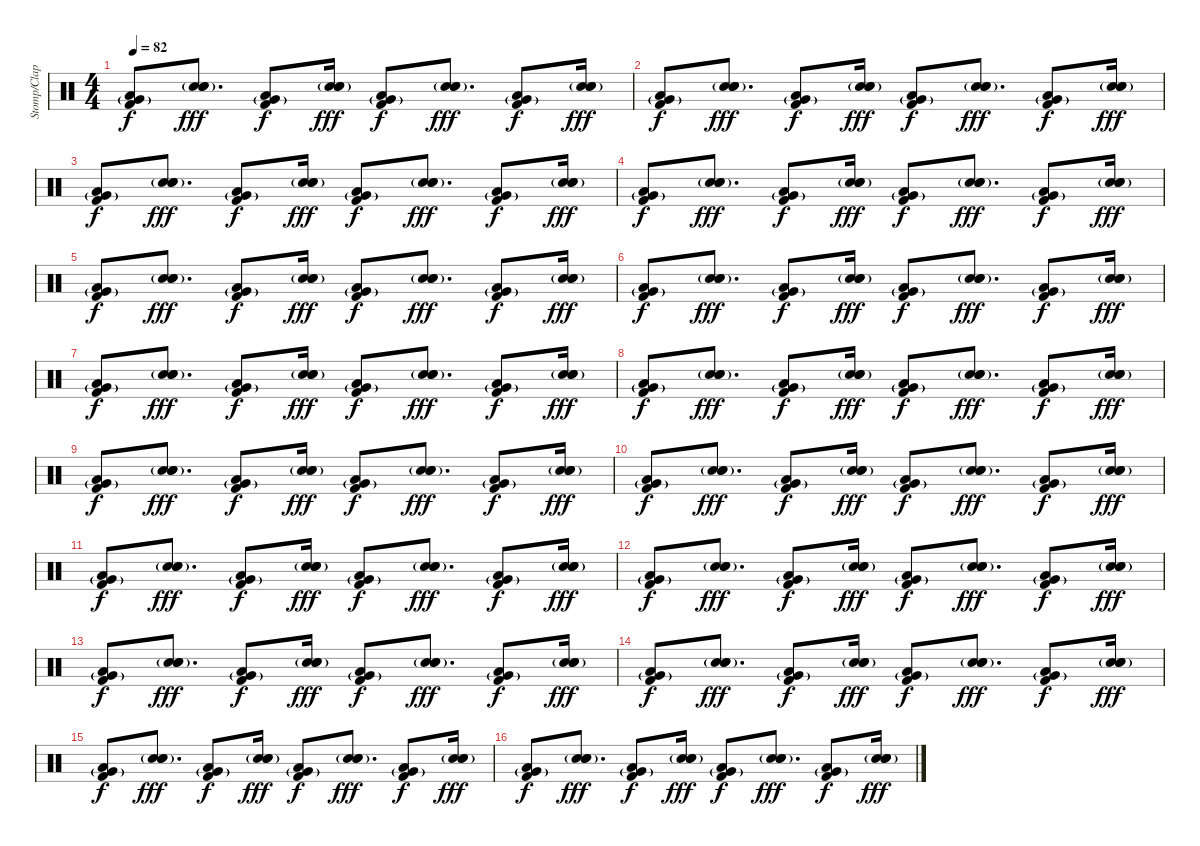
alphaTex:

\track ("Stomp/Clap" "Stomp/Clap") {instrument percussion}
\staff {score}
\articulation defaults
\ts (4 4)
\tempo 82
\clef neutral
\ks c
("Kick (hit) 2" "Low Floor Tom (hit)" "Very Low Tom (hit)"{g}).8{dy f} ("Hand Clap (hit)" "Snare (hit) 2"{g} "Hand Clap (hit)").8{d dy fff} ("Kick (hit) 2" "Low Floor Tom (hit)" "Very Low Tom (hit)"{g}).8{dy f} ("Hand Clap (hit)" "Snare (hit) 2"{g} "Hand Clap (hit)").16{dy fff} ("Kick (hit) 2" "Low Floor Tom (hit)" "Very Low Tom (hit)"{g}).8{dy f} ("Hand Clap (hit)" "Snare (hit) 2"{g} "Hand Clap (hit)").8{d dy fff} ("Kick (hit) 2" "Low Floor Tom (hit)" "Very Low Tom (hit)"{g}).8{dy f} ("Hand Clap (hit)" "Snare (hit) 2"{g} "Hand Clap (hit)").16{dy fff} |
("Kick (hit) 2" "Low Floor Tom (hit)" "Very Low Tom (hit)"{g}).8{dy f} ("Hand Clap (hit)" "Snare (hit) 2"{g} "Hand Clap (hit)").8{d dy fff} ("Kick (hit) 2" "Low Floor Tom (hit)" "Very Low Tom (hit)"{g}).8{dy f} ("Hand Clap (hit)" "Snare (hit) 2"{g} "Hand Clap (hit)").16{dy fff} ("Kick (hit) 2" "Low Floor Tom (hit)" "Very Low Tom (hit)"{g}).8{dy f} ("Hand Clap (hit)" "Snare (hit) 2"{g} "Hand Clap (hit)").8{d dy fff} ("Kick (hit) 2" "Low Floor Tom (hit)" "Very Low Tom (hit)"{g}).8{dy f} ("Hand Clap (hit)" "Snare (hit) 2"{g} "Hand Clap (hit)").16{dy fff} |
("Kick (hit) 2" "Low Floor Tom (hit)" "Very Low Tom (hit)"{g}).8{dy f} ("Hand Clap (hit)" "Snare (hit) 2"{g} "Hand Clap (hit)").8{d dy fff} ("Kick (hit) 2" "Low Floor Tom (hit)" "Very Low Tom (hit)"{g}).8{dy f} ("Hand Clap (hit)" "Snare (hit) 2"{g} "Hand Clap (hit)").16{dy fff} ("Kick (hit) 2" "Low Floor Tom (hit)" "Very Low Tom (hit)"{g}).8{dy f} ("Hand Clap (hit)" "Snare (hit) 2"{g} "Hand Clap (hit)").8{d dy fff} ("Kick (hit) 2" "Low Floor Tom (hit)" "Very Low Tom (hit)"{g}).8{dy f} ("Hand Clap (hit)" "Snare (hit) 2"{g} "Hand Clap (hit)").16{dy fff} |
("Kick (hit) 2" "Low Floor Tom (hit)" "Very Low Tom (hit)"{g}).8{dy f} ("Hand Clap (hit)" "Snare (hit) 2"{g} "Hand Clap (hit)").8{d dy fff} ("Kick (hit) 2" "Low Floor Tom (hit)" "Very Low Tom (hit)"{g}).8{dy f} ("Hand Clap (hit)" "Snare (hit) 2"{g} "Hand Clap (hit)").16{dy fff} ("Kick (hit) 2" "Low Floor Tom (hit)" "Very Low Tom (hit)"{g}).8{dy f} ("Hand Clap (hit)" "Snare (hit) 2"{g} "Hand Clap (hit)").8{d dy fff} ("Kick (hit) 2" "Low Floor Tom (hit)" "Very Low Tom (hit)"{g}).8{dy f} ("Hand Clap (hit)" "Snare (hit) 2"{g} "Hand Clap (hit)").16{dy fff} |
("Kick (hit) 2" "Low Floor Tom (hit)" "Very Low Tom (hit)"{g}).8{dy f} ("Hand Clap (hit)" "Snare (hit) 2"{g} "Hand Clap (hit)").8{d dy fff} ("Kick (hit) 2" "Low Floor Tom (hit)" "Very Low Tom (hit)"{g}).8{dy f} ("Hand Clap (hit)" "Snare (hit) 2"{g} "Hand Clap (hit)").16{dy fff} ("Kick (hit) 2" "Low Floor Tom (hit)" "Very Low Tom (hit)"{g}).8{dy f} ("Hand Clap (hit)" "Snare (hit) 2"{g} "Hand Clap (hit)").8{d dy fff} ("Kick (hit) 2" "Low Floor Tom (hit)" "Very Low Tom (hit)"{g}).8{dy f} ("Hand Clap (hit)" "Snare (hit) 2"{g} "Hand Clap (hit)").16{dy fff} |
("Kick (hit) 2" "Low Floor Tom (hit)" "Very Low Tom (hit)"{g}).8{dy f} ("Hand Clap (hit)" "Snare (hit) 2"{g} "Hand Clap (hit)").8{d dy fff} ("Kick (hit) 2" "Low Floor Tom (hit)" "Very Low Tom (hit)"{g}).8{dy f} ("Hand Clap (hit)" "Snare (hit) 2"{g} "Hand Clap (hit)").16{dy fff} ("Kick (hit) 2" "Low Floor Tom (hit)" "Very Low Tom (hit)"{g}).8{dy f} ("Hand Clap (hit)" "Snare (hit) 2"{g} "Hand Clap (hit)").8{d dy fff} ("Kick (hit) 2" "Low Floor Tom (hit)" "Very Low Tom (hit)"{g}).8{dy f} ("Hand Clap (hit)" "Snare (hit) 2"{g} "Hand Clap (hit)").16{dy fff} |
("Kick (hit) 2" "Low Floor Tom (hit)" "Very Low Tom (hit)"{g}).8{dy f} ("Hand Clap (hit)" "Snare (hit) 2"{g} "Hand Clap (hit)").8{d dy fff} ("Kick (hit) 2" "Low Floor Tom (hit)" "Very Low Tom (hit)"{g}).8{dy f} ("Hand Clap (hit)" "Snare (hit) 2"{g} "Hand Clap (hit)").16{dy fff} ("Kick (hit) 2" "Low Floor Tom (hit)" "Very Low Tom (hit)"{g}).8{dy f} ("Hand Clap (hit)" "Snare (hit) 2"{g} "Hand Clap (hit)").8{d dy fff} ("Kick (hit) 2" "Low Floor Tom (hit)" "Very Low Tom (hit)"{g}).8{dy f} ("Hand Clap (hit)" "Snare (hit) 2"{g} "Hand Clap (hit)").16{dy fff} |
("Kick (hit) 2" "Low Floor Tom (hit)" "Very Low Tom (hit)"{g}).8{dy f} ("Hand Clap (hit)" "Snare (hit) 2"{g} "Hand Clap (hit)").8{d dy fff} ("Kick (hit) 2" "Low Floor Tom (hit)" "Very Low Tom (hit)"{g}).8{dy f} ("Hand Clap (hit)" "Snare (hit) 2"{g} "Hand Clap (hit)").16{dy fff} ("Kick (hit) 2" "Low Floor Tom (hit)" "Very Low Tom (hit)"{g}).8{dy f} ("Hand Clap (hit)" "Snare (hit) 2"{g} "Hand Clap (hit)").8{d dy fff} ("Kick (hit) 2" "Low Floor Tom (hit)" "Very Low Tom (hit)"{g}).8{dy f} ("Hand Clap (hit)" "Snare (hit) 2"{g} "Hand Clap (hit)").16{dy fff} |
("Kick (hit) 2" "Low Floor Tom (hit)" "Very Low Tom (hit)"{g}).8{dy f} ("Hand Clap (hit)" "Snare (hit) 2"{g} "Hand Clap (hit)").8{d dy fff} ("Kick (hit) 2" "Low Floor Tom (hit)" "Very Low Tom (hit)"{g}).8{dy f} ("Hand Clap (hit)" "Snare (hit) 2"{g} "Hand Clap (hit)").16{dy fff} ("Kick (hit) 2" "Low Floor Tom (hit)" "Very Low Tom (hit)"{g}).8{dy f} ("Hand Clap (hit)" "Snare (hit) 2"{g} "Hand Clap (hit)").8{d dy fff} ("Kick (hit) 2" "Low Floor Tom (hit)" "Very Low Tom (hit)"{g}).8{dy f} ("Hand Clap (hit)" "Snare (hit) 2"{g} "Hand Clap (hit)").16{dy fff} |
("Kick (hit) 2" "Low Floor Tom (hit)" "Very Low Tom (hit)"{g}).8{dy f} ("Hand Clap (hit)" "Snare (hit) 2"{g} "Hand Clap (hit)").8{d dy fff} ("Kick (hit) 2" "Low Floor Tom (hit)" "Very Low Tom (hit)"{g}).8{dy f} ("Hand Clap (hit)" "Snare (hit) 2"{g} "Hand Clap (hit)").16{dy fff} ("Kick (hit) 2" "Low Floor Tom (hit)" "Very Low Tom (hit)"{g}).8{dy f} ("Hand Clap (hit)" "Snare (hit) 2"{g} "Hand Clap (hit)").8{d dy fff} ("Kick (hit) 2" "Low Floor Tom (hit)" "Very Low Tom (hit)"{g}).8{dy f} ("Hand Clap (hit)" "Snare (hit) 2"{g} "Hand Clap (hit)").16{dy fff} |
("Kick (hit) 2" "Low Floor Tom (hit)" "Very Low Tom (hit)"{g}).8{dy f} ("Hand Clap (hit)" "Snare (hit) 2"{g} "Hand Clap (hit)").8{d dy fff} ("Kick (hit) 2" "Low Floor Tom (hit)" "Very Low Tom (hit)"{g}).8{dy f} ("Hand Clap (hit)" "Snare (hit) 2"{g} "Hand Clap (hit)").16{dy fff} ("Kick (hit) 2" "Low Floor Tom (hit)" "Very Low Tom (hit)"{g}).8{dy f} ("Hand Clap (hit)" "Snare (hit) 2"{g} "Hand Clap (hit)").8{d dy fff} ("Kick (hit) 2" "Low Floor Tom (hit)" "Very Low Tom (hit)"{g}).8{dy f} ("Hand Clap (hit)" "Snare (hit) 2"{g} "Hand Clap (hit)").16{dy fff} |
("Kick (hit) 2" "Low Floor Tom (hit)" "Very Low Tom (hit)"{g}).8{dy f} ("Hand Clap (hit)" "Snare (hit) 2"{g} "Hand Clap (hit)").8{d dy fff} ("Kick (hit) 2" "Low Floor Tom (hit)" "Very Low Tom (hit)"{g}).8{dy f} ("Hand Clap (hit)" "Snare (hit) 2"{g} "Hand Clap (hit)").16{dy fff} ("Kick (hit) 2" "Low Floor Tom (hit)" "Very Low Tom (hit)"{g}).8{dy f} ("Hand Clap (hit)" "Snare (hit) 2"{g} "Hand Clap (hit)").8{d dy fff} ("Kick (hit) 2" "Low Floor Tom (hit)" "Very Low Tom (hit)"{g}).8{dy f} ("Hand Clap (hit)" "Snare (hit) 2"{g} "Hand Clap (hit)").16{dy fff} |
("Kick (hit) 2" "Low Floor Tom (hit)" "Very Low Tom (hit)"{g}).8{dy f} ("Hand Clap (hit)" "Snare (hit) 2"{g} "Hand Clap (hit)").8{d dy fff} ("Kick (hit) 2" "Low Floor Tom (hit)" "Very Low Tom (hit)"{g}).8{dy f} ("Hand Clap (hit)" "Snare (hit) 2"{g} "Hand Clap (hit)").16{dy fff} ("Kick (hit) 2" "Low Floor Tom (hit)" "Very Low Tom (hit)"{g}).8{dy f} ("Hand Clap (hit)" "Snare (hit) 2"{g} "Hand Clap (hit)").8{d dy fff} ("Kick (hit) 2" "Low Floor Tom (hit)" "Very Low Tom (hit)"{g}).8{dy f} ("Hand Clap (hit)" "Snare (hit) 2"{g} "Hand Clap (hit)").16{dy fff} |
("Kick (hit) 2" "Low Floor Tom (hit)" "Very Low Tom (hit)"{g}).8{dy f} ("Hand Clap (hit)" "Snare (hit) 2"{g} "Hand Clap (hit)").8{d dy fff} ("Kick (hit) 2" "Low Floor Tom (hit)" "Very Low Tom (hit)"{g}).8{dy f} ("Hand Clap (hit)" "Snare (hit) 2"{g} "Hand Clap (hit)").16{dy fff} ("Kick (hit) 2" "Low Floor Tom (hit)" "Very Low Tom (hit)"{g}).8{dy f} ("Hand Clap (hit)" "Snare (hit) 2"{g} "Hand Clap (hit)").8{d dy fff} ("Kick (hit) 2" "Low Floor Tom (hit)" "Very Low Tom (hit)"{g}).8{dy f} ("Hand Clap (hit)" "Snare (hit) 2"{g} "Hand Clap (hit)").16{dy fff} |
("Kick (hit) 2" "Low Floor Tom (hit)" "Very Low Tom (hit)"{g}).8{dy f} ("Hand Clap (hit)" "Snare (hit) 2"{g} "Hand Clap (hit)").8{d dy fff} ("Kick (hit) 2" "Low Floor Tom (hit)" "Very Low Tom (hit)"{g}).8{dy f} ("Hand Clap (hit)" "Snare (hit) 2"{g} "Hand Clap (hit)").16{dy fff} ("Kick (hit) 2" "Low Floor Tom (hit)" "Very Low Tom (hit)"{g}).8{dy f} ("Hand Clap (hit)" "Snare (hit) 2"{g} "Hand Clap (hit)").8{d dy fff} ("Kick (hit) 2" "Low Floor Tom (hit)" "Very Low Tom (hit)"{g}).8{dy f} ("Hand Clap (hit)" "Snare (hit) 2"{g} "Hand Clap (hit)").16{dy fff} |
("Kick (hit) 2" "Low Floor Tom (hit)" "Very Low Tom (hit)"{g}).8{dy f} ("Hand Clap (hit)" "Snare (hit) 2"{g} "Hand Clap (hit)").8{d dy fff} ("Kick (hit) 2" "Low Floor Tom (hit)" "Very Low Tom (hit)"{g}).8{dy f} ("Hand Clap (hit)" "Snare (hit) 2"{g} "Hand Clap (hit)").16{dy fff} ("Kick (hit) 2" "Low Floor Tom (hit)" "Very Low Tom (hit)"{g}).8{dy f} ("Hand Clap (hit)" "Snare (hit) 2"{g} "Hand Clap (hit)").8{d dy fff} ("Kick (hit) 2" "Low Floor Tom (hit)" "Very Low Tom (hit)"{g}).8{dy f} ("Hand Clap (hit)" "Snare (hit) 2"{g} "Hand Clap (hit)").16{dy fff}
